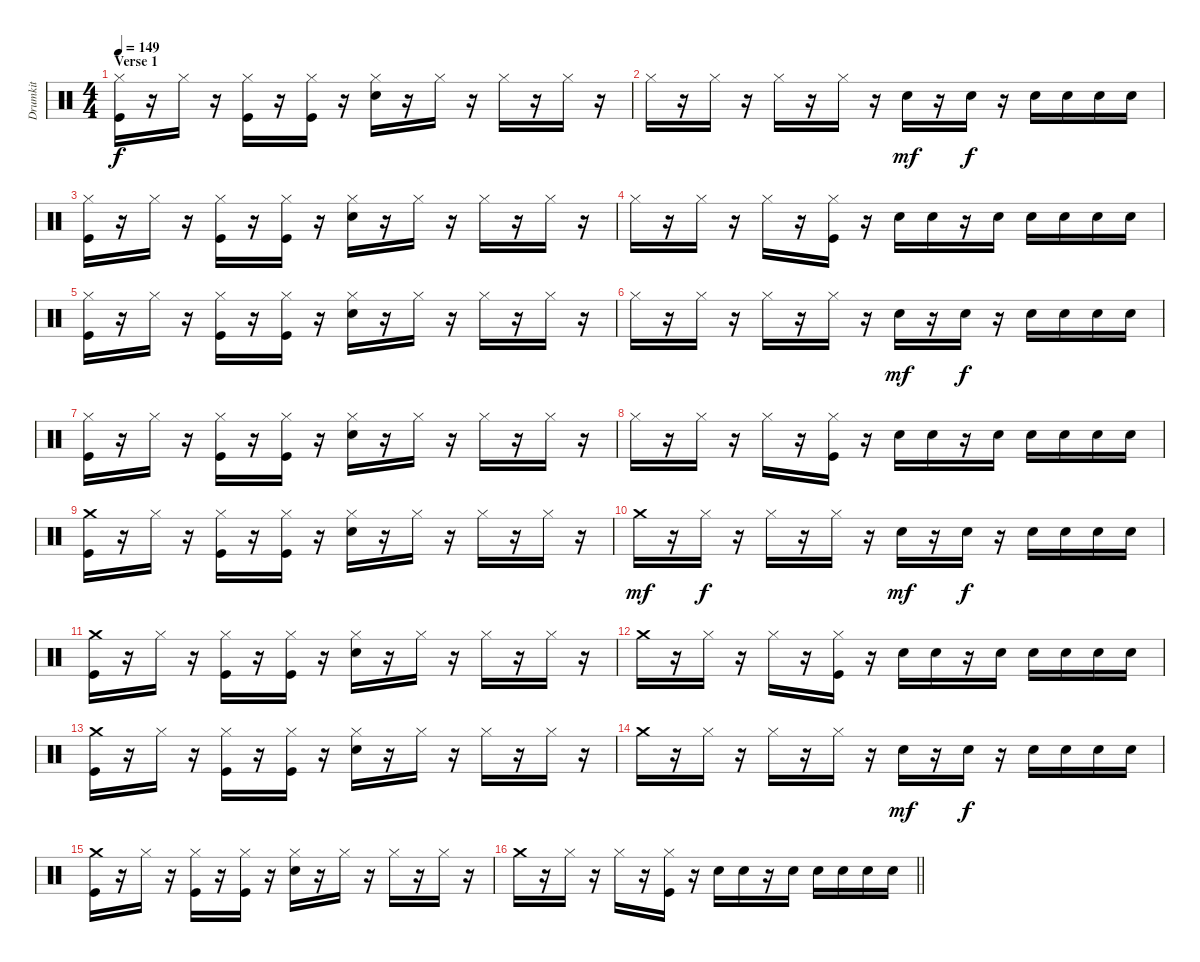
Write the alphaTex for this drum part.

\track ("Drumkit" "Drumkit") {instrument percussion}
\staff {score}
\articulation defaults
\ts (4 4)
\section ("" "Verse 1")
\tempo 149
\clef neutral
\ks c
("Hi-Hat (closed)" "Kick (hit)").16{dy f} r.16 "Hi-Hat (closed)".16 r.16 ("Hi-Hat (closed)" "Kick (hit)").16 r.16 ("Hi-Hat (closed)" "Kick (hit)").16 r.16 ("Hi-Hat (closed)" "Snare (hit) 2").16 r.16 "Hi-Hat (closed)".16 r.16 "Hi-Hat (closed)".16 r.16 "Hi-Hat (closed)".16 r.16 |
"Hi-Hat (closed)".16 r.16 "Hi-Hat (closed)".16 r.16 "Hi-Hat (closed)".16 r.16 "Hi-Hat (closed)".16 r.16 "Snare (hit) 2".16{dy mf} r.16 "Snare (hit) 2".16{dy f} r.16 "Snare (hit) 2".16 "Snare (hit) 2".16 "Snare (hit) 2".16 "Snare (hit) 2".16 |
("Hi-Hat (closed)" "Kick (hit)").16 r.16 "Hi-Hat (closed)".16 r.16 ("Hi-Hat (closed)" "Kick (hit)").16 r.16 ("Hi-Hat (closed)" "Kick (hit)").16 r.16 ("Hi-Hat (closed)" "Snare (hit) 2").16 r.16 "Hi-Hat (closed)".16 r.16 "Hi-Hat (closed)".16 r.16 "Hi-Hat (closed)".16 r.16 |
"Hi-Hat (closed)".16 r.16 "Hi-Hat (closed)".16 r.16 "Hi-Hat (closed)".16 r.16 ("Hi-Hat (closed)" "Kick (hit)").16 r.16 "Snare (hit) 2".16 "Snare (hit) 2".16 r.16 "Snare (hit) 2".16 "Snare (hit) 2".16 "Snare (hit) 2".16 "Snare (hit) 2".16 "Snare (hit) 2".16 |
("Hi-Hat (closed)" "Kick (hit)").16 r.16 "Hi-Hat (closed)".16 r.16 ("Hi-Hat (closed)" "Kick (hit)").16 r.16 ("Hi-Hat (closed)" "Kick (hit)").16 r.16 ("Hi-Hat (closed)" "Snare (hit) 2").16 r.16 "Hi-Hat (closed)".16 r.16 "Hi-Hat (closed)".16 r.16 "Hi-Hat (closed)".16 r.16 |
"Hi-Hat (closed)".16 r.16 "Hi-Hat (closed)".16 r.16 "Hi-Hat (closed)".16 r.16 "Hi-Hat (closed)".16 r.16 "Snare (hit) 2".16{dy mf} r.16 "Snare (hit) 2".16{dy f} r.16 "Snare (hit) 2".16 "Snare (hit) 2".16 "Snare (hit) 2".16 "Snare (hit) 2".16 |
("Hi-Hat (closed)" "Kick (hit)").16 r.16 "Hi-Hat (closed)".16 r.16 ("Hi-Hat (closed)" "Kick (hit)").16 r.16 ("Hi-Hat (closed)" "Kick (hit)").16 r.16 ("Hi-Hat (closed)" "Snare (hit) 2").16 r.16 "Hi-Hat (closed)".16 r.16 "Hi-Hat (closed)".16 r.16 "Hi-Hat (closed)".16 r.16 |
"Hi-Hat (closed)".16 r.16 "Hi-Hat (closed)".16 r.16 "Hi-Hat (closed)".16 r.16 ("Hi-Hat (closed)" "Kick (hit)").16 r.16 "Snare (hit) 2".16 "Snare (hit) 2".16 r.16 "Snare (hit) 2".16 "Snare (hit) 2".16 "Snare (hit) 2".16 "Snare (hit) 2".16 "Snare (hit) 2".16 |
("Kick (hit)" "Crash medium (hit)").16 r.16 "Hi-Hat (closed)".16 r.16 ("Hi-Hat (closed)" "Kick (hit)").16 r.16 ("Hi-Hat (closed)" "Kick (hit)").16 r.16 ("Hi-Hat (closed)" "Snare (hit) 2").16 r.16 "Hi-Hat (closed)".16 r.16 "Hi-Hat (closed)".16 r.16 "Hi-Hat (closed)".16 r.16 |
"Crash medium (hit)".16{dy mf} r.16 "Hi-Hat (closed)".16{dy f} r.16 "Hi-Hat (closed)".16 r.16 "Hi-Hat (closed)".16 r.16 "Snare (hit) 2".16{dy mf} r.16 "Snare (hit) 2".16{dy f} r.16 "Snare (hit) 2".16 "Snare (hit) 2".16 "Snare (hit) 2".16 "Snare (hit) 2".16 |
("Kick (hit)" "Crash medium (hit)").16 r.16 "Hi-Hat (closed)".16 r.16 ("Hi-Hat (closed)" "Kick (hit)").16 r.16 ("Hi-Hat (closed)" "Kick (hit)").16 r.16 ("Hi-Hat (closed)" "Snare (hit) 2").16 r.16 "Hi-Hat (closed)".16 r.16 "Hi-Hat (closed)".16 r.16 "Hi-Hat (closed)".16 r.16 |
"Crash medium (hit)".16 r.16 "Hi-Hat (closed)".16 r.16 "Hi-Hat (closed)".16 r.16 ("Hi-Hat (closed)" "Kick (hit)").16 r.16 "Snare (hit) 2".16 "Snare (hit) 2".16 r.16 "Snare (hit) 2".16 "Snare (hit) 2".16 "Snare (hit) 2".16 "Snare (hit) 2".16 "Snare (hit) 2".16 |
("Kick (hit)" "Crash medium (hit)").16 r.16 "Hi-Hat (closed)".16 r.16 ("Hi-Hat (closed)" "Kick (hit)").16 r.16 ("Hi-Hat (closed)" "Kick (hit)").16 r.16 ("Hi-Hat (closed)" "Snare (hit) 2").16 r.16 "Hi-Hat (closed)".16 r.16 "Hi-Hat (closed)".16 r.16 "Hi-Hat (closed)".16 r.16 |
"Crash medium (hit)".16 r.16 "Hi-Hat (closed)".16 r.16 "Hi-Hat (closed)".16 r.16 "Hi-Hat (closed)".16 r.16 "Snare (hit) 2".16{dy mf} r.16 "Snare (hit) 2".16{dy f} r.16 "Snare (hit) 2".16 "Snare (hit) 2".16 "Snare (hit) 2".16 "Snare (hit) 2".16 |
("Kick (hit)" "Crash medium (hit)").16 r.16 "Hi-Hat (closed)".16 r.16 ("Hi-Hat (closed)" "Kick (hit)").16 r.16 ("Hi-Hat (closed)" "Kick (hit)").16 r.16 ("Hi-Hat (closed)" "Snare (hit) 2").16 r.16 "Hi-Hat (closed)".16 r.16 "Hi-Hat (closed)".16 r.16 "Hi-Hat (closed)".16 r.16 |
\barLineRight lightlight "Crash medium (hit)".16
r.16 "Hi-Hat (closed)".16 r.16 "Hi-Hat (closed)".16 r.16 ("Hi-Hat (closed)" "Kick (hit)").16 r.16 "Snare (hit) 2".16 "Snare (hit) 2".16 r.16 "Snare (hit) 2".16 "Snare (hit) 2".16 "Snare (hit) 2".16 "Snare (hit) 2".16 "Snare (hit) 2".16
